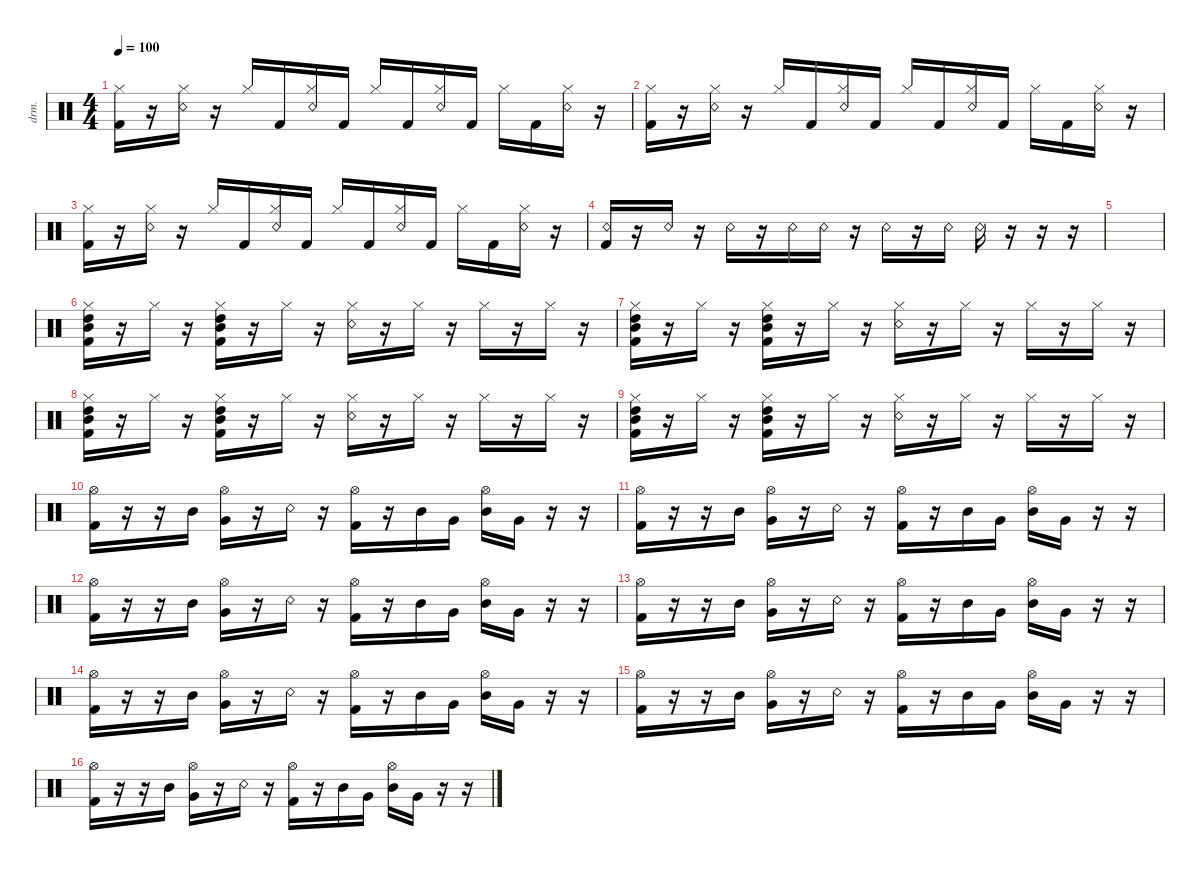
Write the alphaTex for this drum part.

\defaultSystemsLayout 4
\hideDynamics
\bracketExtendMode nobrackets
\otherSystemsTrackNameOrientation horizontal
\track ("Drumkit" "drm.") {instrument percussion}
\staff {score}
\articulation defaults
\ts (4 4)
\tempo 100
\clef neutral
\ks c
("Hi-Hat (closed)" "Kick (hit) 2").16{dy mf beam Down} r.16{beam Down} ("Hi-Hat (closed)" "Snare (rim shot)").16{beam Down} r.16{beam Down} "Hi-Hat (closed)".16{beam Up} "Kick (hit) 2".16{beam Up} ("Hi-Hat (closed)" "Snare (rim shot)").16{beam Up} "Kick (hit) 2".16{beam Up} "Hi-Hat (closed)".16{beam Up} "Kick (hit) 2".16{beam Up} ("Hi-Hat (closed)" "Snare (rim shot)").16{beam Up} "Kick (hit) 2".16{beam Up} "Hi-Hat (closed)".16{beam Down} "Kick (hit) 2".16{beam Down} ("Hi-Hat (closed)" "Snare (rim shot)").16{beam Down} r.16{beam Down} |
("Hi-Hat (closed)" "Kick (hit) 2").16{beam Down} r.16{beam Down} ("Hi-Hat (closed)" "Snare (rim shot)").16{beam Down} r.16{beam Down} "Hi-Hat (closed)".16{beam Up} "Kick (hit) 2".16{beam Up} ("Hi-Hat (closed)" "Snare (rim shot)").16{beam Up} "Kick (hit) 2".16{beam Up} "Hi-Hat (closed)".16{beam Up} "Kick (hit) 2".16{beam Up} ("Hi-Hat (closed)" "Snare (rim shot)").16{beam Up} "Kick (hit) 2".16{beam Up} "Hi-Hat (closed)".16{beam Down} "Kick (hit) 2".16{beam Down} ("Hi-Hat (closed)" "Snare (rim shot)").16{beam Down} r.16{beam Down} |
("Hi-Hat (closed)" "Kick (hit) 2").16{beam Down} r.16{beam Down} ("Hi-Hat (closed)" "Snare (rim shot)").16{beam Down} r.16{beam Down} "Hi-Hat (closed)".16{beam Up} "Kick (hit) 2".16{beam Up} ("Hi-Hat (closed)" "Snare (rim shot)").16{beam Up} "Kick (hit) 2".16{beam Up} "Hi-Hat (closed)".16{beam Up} "Kick (hit) 2".16{beam Up} ("Hi-Hat (closed)" "Snare (rim shot)").16{beam Up} "Kick (hit) 2".16{beam Up} "Hi-Hat (closed)".16{beam Down} "Kick (hit) 2".16{beam Down} ("Hi-Hat (closed)" "Snare (rim shot)").16{beam Down} r.16{beam Down} |
("Kick (hit) 2" "Snare (rim shot)").16{beam Up} r.16{beam Up} "Snare (rim shot)".16{beam Up} r.16{beam Up} "Snare (rim shot)".16{beam Down} r.16{beam Down} "Snare (rim shot)".16{beam Down} "Snare (rim shot)".16{beam Down} r.16{beam Down} "Snare (rim shot)".16{beam Down} r.16{beam Down} "Snare (rim shot)".16{beam Down} "Snare (rim shot)".16{beam Down} r.16{beam Down} r.16{beam Down} r.16{beam Down} |
|
("Hi-Hat (closed)" "Kick (hit) 2" "High Tom (hit)" "Mid Tom (hit)").16{beam Down} r.16{beam Down} "Hi-Hat (closed)".16{beam Down} r.16{beam Down} ("Hi-Hat (closed)" "Kick (hit) 2" "Mid Tom (hit)" "High Tom (hit)").16{beam Down} r.16{beam Down} "Hi-Hat (closed)".16{beam Down} r.16{beam Down} ("Hi-Hat (closed)" "Snare (rim shot)").16{beam Down} r.16{beam Down} "Hi-Hat (closed)".16{beam Down} r.16{beam Down} "Hi-Hat (closed)".16{beam Down} r.16{beam Down} "Hi-Hat (closed)".16{beam Down} r.16{beam Down} |
("Hi-Hat (closed)" "Kick (hit) 2" "High Tom (hit)" "Mid Tom (hit)").16{beam Down} r.16{beam Down} "Hi-Hat (closed)".16{beam Down} r.16{beam Down} ("Hi-Hat (closed)" "Kick (hit) 2" "Mid Tom (hit)" "High Tom (hit)").16{beam Down} r.16{beam Down} "Hi-Hat (closed)".16{beam Down} r.16{beam Down} ("Hi-Hat (closed)" "Snare (rim shot)").16{beam Down} r.16{beam Down} "Hi-Hat (closed)".16{beam Down} r.16{beam Down} "Hi-Hat (closed)".16{beam Down} r.16{beam Down} "Hi-Hat (closed)".16{beam Down} r.16{beam Down} |
("Hi-Hat (closed)" "Kick (hit) 2" "High Tom (hit)" "Mid Tom (hit)").16{beam Down} r.16{beam Down} "Hi-Hat (closed)".16{beam Down} r.16{beam Down} ("Hi-Hat (closed)" "Kick (hit) 2" "Mid Tom (hit)" "High Tom (hit)").16{beam Down} r.16{beam Down} "Hi-Hat (closed)".16{beam Down} r.16{beam Down} ("Hi-Hat (closed)" "Snare (rim shot)").16{beam Down} r.16{beam Down} "Hi-Hat (closed)".16{beam Down} r.16{beam Down} "Hi-Hat (closed)".16{beam Down} r.16{beam Down} "Hi-Hat (closed)".16{beam Down} r.16{beam Down} |
("Hi-Hat (closed)" "Kick (hit) 2" "High Tom (hit)" "Mid Tom (hit)").16{beam Down} r.16{beam Down} "Hi-Hat (closed)".16{beam Down} r.16{beam Down} ("Hi-Hat (closed)" "Kick (hit) 2" "Mid Tom (hit)" "High Tom (hit)").16{beam Down} r.16{beam Down} "Hi-Hat (closed)".16{beam Down} r.16{beam Down} ("Hi-Hat (closed)" "Snare (rim shot)").16{beam Down} r.16{beam Down} "Hi-Hat (closed)".16{beam Down} r.16{beam Down} "Hi-Hat (closed)".16{beam Down} r.16{beam Down} "Hi-Hat (closed)".16{beam Down} r.16{beam Down} |
("Hi-Hat (open)" "Kick (hit) 2").16{beam Down} r.16{beam Down} r.16{beam Down} "Mid Tom (hit)".16{beam Down} ("Very Low Tom (hit)" "Hi-Hat (open)").16{beam Down} r.16{beam Down} "Snare (rim shot)".16{beam Down} r.16{beam Down} ("Hi-Hat (open)" "Kick (hit) 2").16{beam Down} r.16{beam Down} "Mid Tom (hit)".16{beam Down} "Very Low Tom (hit)".16{beam Down} ("Mid Tom (hit)" "Hi-Hat (open)").16{beam Down} "Very Low Tom (hit)".16{beam Down} r.16{beam Down} r.16{beam Down} |
("Hi-Hat (open)" "Kick (hit) 2").16{beam Down} r.16{beam Down} r.16{beam Down} "Mid Tom (hit)".16{beam Down} ("Very Low Tom (hit)" "Hi-Hat (open)").16{beam Down} r.16{beam Down} "Snare (rim shot)".16{beam Down} r.16{beam Down} ("Hi-Hat (open)" "Kick (hit) 2").16{beam Down} r.16{beam Down} "Mid Tom (hit)".16{beam Down} "Very Low Tom (hit)".16{beam Down} ("Mid Tom (hit)" "Hi-Hat (open)").16{beam Down} "Very Low Tom (hit)".16{beam Down} r.16{beam Down} r.16{beam Down} |
("Hi-Hat (open)" "Kick (hit) 2").16{beam Down} r.16{beam Down} r.16{beam Down} "Mid Tom (hit)".16{beam Down} ("Very Low Tom (hit)" "Hi-Hat (open)").16{beam Down} r.16{beam Down} "Snare (rim shot)".16{beam Down} r.16{beam Down} ("Hi-Hat (open)" "Kick (hit) 2").16{beam Down} r.16{beam Down} "Mid Tom (hit)".16{beam Down} "Very Low Tom (hit)".16{beam Down} ("Mid Tom (hit)" "Hi-Hat (open)").16{beam Down} "Very Low Tom (hit)".16{beam Down} r.16{beam Down} r.16{beam Down} |
("Hi-Hat (open)" "Kick (hit) 2").16{beam Down} r.16{beam Down} r.16{beam Down} "Mid Tom (hit)".16{beam Down} ("Very Low Tom (hit)" "Hi-Hat (open)").16{beam Down} r.16{beam Down} "Snare (rim shot)".16{beam Down} r.16{beam Down} ("Hi-Hat (open)" "Kick (hit) 2").16{beam Down} r.16{beam Down} "Mid Tom (hit)".16{beam Down} "Very Low Tom (hit)".16{beam Down} ("Mid Tom (hit)" "Hi-Hat (open)").16{beam Down} "Very Low Tom (hit)".16{beam Down} r.16{beam Down} r.16{beam Down} |
("Hi-Hat (open)" "Kick (hit) 2").16{beam Down} r.16{beam Down} r.16{beam Down} "Mid Tom (hit)".16{beam Down} ("Very Low Tom (hit)" "Hi-Hat (open)").16{beam Down} r.16{beam Down} "Snare (rim shot)".16{beam Down} r.16{beam Down} ("Hi-Hat (open)" "Kick (hit) 2").16{beam Down} r.16{beam Down} "Mid Tom (hit)".16{beam Down} "Very Low Tom (hit)".16{beam Down} ("Mid Tom (hit)" "Hi-Hat (open)").16{beam Down} "Very Low Tom (hit)".16{beam Down} r.16{beam Down} r.16{beam Down} |
("Hi-Hat (open)" "Kick (hit) 2").16{beam Down} r.16{beam Down} r.16{beam Down} "Mid Tom (hit)".16{beam Down} ("Very Low Tom (hit)" "Hi-Hat (open)").16{beam Down} r.16{beam Down} "Snare (rim shot)".16{beam Down} r.16{beam Down} ("Hi-Hat (open)" "Kick (hit) 2").16{beam Down} r.16{beam Down} "Mid Tom (hit)".16{beam Down} "Very Low Tom (hit)".16{beam Down} ("Mid Tom (hit)" "Hi-Hat (open)").16{beam Down} "Very Low Tom (hit)".16{beam Down} r.16{beam Down} r.16{beam Down} |
("Hi-Hat (open)" "Kick (hit) 2").16{beam Down} r.16{beam Down} r.16{beam Down} "Mid Tom (hit)".16{beam Down} ("Very Low Tom (hit)" "Hi-Hat (open)").16{beam Down} r.16{beam Down} "Snare (rim shot)".16{beam Down} r.16{beam Down} ("Hi-Hat (open)" "Kick (hit) 2").16{beam Down} r.16{beam Down} "Mid Tom (hit)".16{beam Down} "Very Low Tom (hit)".16{beam Down} ("Mid Tom (hit)" "Hi-Hat (open)").16{beam Down} "Very Low Tom (hit)".16{beam Down} r.16{beam Down} r.16{beam Down}
